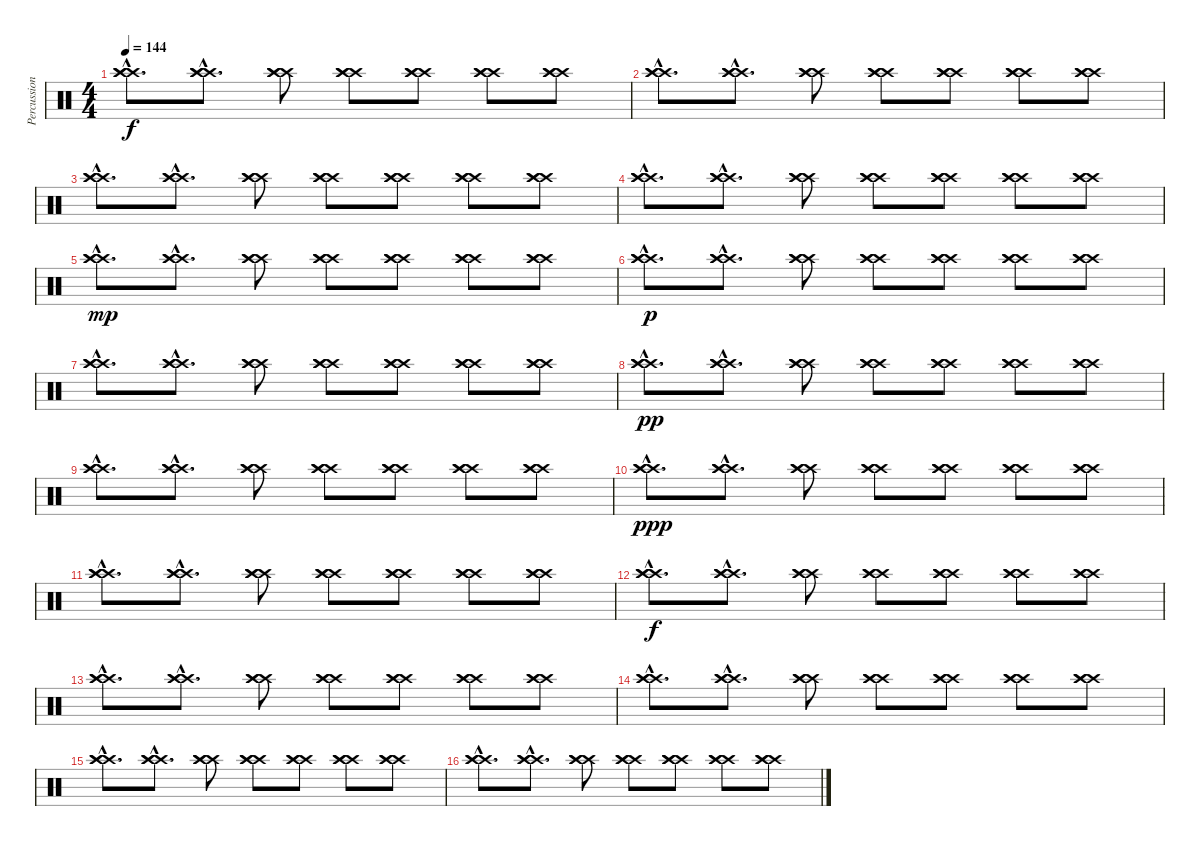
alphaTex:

\track ("Percussion 2" "Percussion") {instrument percussion}
\staff {score}
\articulation defaults
\ts (4 4)
\tempo 144
\clef neutral
\ks c
("Crash high (hit)"{hac} "Crash high (hit)"{hac} "Crash high (hit)"{hac}).8{d dy f} ("Crash high (hit)"{hac} "Crash high (hit)" "Crash high (hit)").8{d} ("Crash high (hit)" "Crash high (hit)" "Crash high (hit)").8 ("Crash high (hit)" "Crash high (hit)" "Crash high (hit)").8 ("Crash high (hit)" "Crash high (hit)" "Crash high (hit)").8 ("Crash high (hit)" "Crash high (hit)" "Crash high (hit)").8 ("Crash high (hit)" "Crash high (hit)" "Crash high (hit)").8 |
("Crash high (hit)"{hac} "Crash high (hit)"{hac} "Crash high (hit)"{hac}).8{d} ("Crash high (hit)"{hac} "Crash high (hit)" "Crash high (hit)").8{d} ("Crash high (hit)" "Crash high (hit)" "Crash high (hit)").8 ("Crash high (hit)" "Crash high (hit)" "Crash high (hit)").8 ("Crash high (hit)" "Crash high (hit)" "Crash high (hit)").8 ("Crash high (hit)" "Crash high (hit)" "Crash high (hit)").8 ("Crash high (hit)" "Crash high (hit)" "Crash high (hit)").8 |
("Crash high (hit)"{hac} "Crash high (hit)"{hac} "Crash high (hit)"{hac}).8{d} ("Crash high (hit)"{hac} "Crash high (hit)" "Crash high (hit)").8{d} ("Crash high (hit)" "Crash high (hit)" "Crash high (hit)").8 ("Crash high (hit)" "Crash high (hit)" "Crash high (hit)").8 ("Crash high (hit)" "Crash high (hit)" "Crash high (hit)").8 ("Crash high (hit)" "Crash high (hit)" "Crash high (hit)").8 ("Crash high (hit)" "Crash high (hit)" "Crash high (hit)").8 |
("Crash high (hit)"{hac} "Crash high (hit)"{hac} "Crash high (hit)"{hac}).8{d} ("Crash high (hit)"{hac} "Crash high (hit)" "Crash high (hit)").8{d} ("Crash high (hit)" "Crash high (hit)" "Crash high (hit)").8 ("Crash high (hit)" "Crash high (hit)" "Crash high (hit)").8 ("Crash high (hit)" "Crash high (hit)" "Crash high (hit)").8 ("Crash high (hit)" "Crash high (hit)" "Crash high (hit)").8 ("Crash high (hit)" "Crash high (hit)" "Crash high (hit)").8 |
("Crash high (hit)"{hac} "Crash high (hit)"{hac} "Crash high (hit)"{hac}).8{d dy mp} ("Crash high (hit)"{hac} "Crash high (hit)" "Crash high (hit)").8{d} ("Crash high (hit)" "Crash high (hit)" "Crash high (hit)").8 ("Crash high (hit)" "Crash high (hit)" "Crash high (hit)").8 ("Crash high (hit)" "Crash high (hit)" "Crash high (hit)").8 ("Crash high (hit)" "Crash high (hit)" "Crash high (hit)").8 ("Crash high (hit)" "Crash high (hit)" "Crash high (hit)").8 |
("Crash high (hit)"{hac} "Crash high (hit)"{hac} "Crash high (hit)"{hac}).8{d dy p} ("Crash high (hit)"{hac} "Crash high (hit)" "Crash high (hit)").8{d} ("Crash high (hit)" "Crash high (hit)" "Crash high (hit)").8 ("Crash high (hit)" "Crash high (hit)" "Crash high (hit)").8 ("Crash high (hit)" "Crash high (hit)" "Crash high (hit)").8 ("Crash high (hit)" "Crash high (hit)" "Crash high (hit)").8 ("Crash high (hit)" "Crash high (hit)" "Crash high (hit)").8 |
("Crash high (hit)"{hac} "Crash high (hit)"{hac} "Crash high (hit)"{hac}).8{d} ("Crash high (hit)"{hac} "Crash high (hit)" "Crash high (hit)").8{d} ("Crash high (hit)" "Crash high (hit)" "Crash high (hit)").8 ("Crash high (hit)" "Crash high (hit)" "Crash high (hit)").8 ("Crash high (hit)" "Crash high (hit)" "Crash high (hit)").8 ("Crash high (hit)" "Crash high (hit)" "Crash high (hit)").8 ("Crash high (hit)" "Crash high (hit)" "Crash high (hit)").8 |
("Crash high (hit)"{hac} "Crash high (hit)"{hac} "Crash high (hit)"{hac}).8{d dy pp} ("Crash high (hit)"{hac} "Crash high (hit)" "Crash high (hit)").8{d} ("Crash high (hit)" "Crash high (hit)" "Crash high (hit)").8 ("Crash high (hit)" "Crash high (hit)" "Crash high (hit)").8 ("Crash high (hit)" "Crash high (hit)" "Crash high (hit)").8 ("Crash high (hit)" "Crash high (hit)" "Crash high (hit)").8 ("Crash high (hit)" "Crash high (hit)" "Crash high (hit)").8 |
("Crash high (hit)"{hac} "Crash high (hit)"{hac} "Crash high (hit)"{hac}).8{d} ("Crash high (hit)"{hac} "Crash high (hit)" "Crash high (hit)").8{d} ("Crash high (hit)" "Crash high (hit)" "Crash high (hit)").8 ("Crash high (hit)" "Crash high (hit)" "Crash high (hit)").8 ("Crash high (hit)" "Crash high (hit)" "Crash high (hit)").8 ("Crash high (hit)" "Crash high (hit)" "Crash high (hit)").8 ("Crash high (hit)" "Crash high (hit)" "Crash high (hit)").8 |
("Crash high (hit)"{hac} "Crash high (hit)"{hac} "Crash high (hit)"{hac}).8{d dy ppp} ("Crash high (hit)"{hac} "Crash high (hit)" "Crash high (hit)").8{d} ("Crash high (hit)" "Crash high (hit)" "Crash high (hit)").8 ("Crash high (hit)" "Crash high (hit)" "Crash high (hit)").8 ("Crash high (hit)" "Crash high (hit)" "Crash high (hit)").8 ("Crash high (hit)" "Crash high (hit)" "Crash high (hit)").8 ("Crash high (hit)" "Crash high (hit)" "Crash high (hit)").8 |
("Crash high (hit)"{hac} "Crash high (hit)"{hac} "Crash high (hit)"{hac}).8{d} ("Crash high (hit)"{hac} "Crash high (hit)" "Crash high (hit)").8{d} ("Crash high (hit)" "Crash high (hit)" "Crash high (hit)").8 ("Crash high (hit)" "Crash high (hit)" "Crash high (hit)").8 ("Crash high (hit)" "Crash high (hit)" "Crash high (hit)").8 ("Crash high (hit)" "Crash high (hit)" "Crash high (hit)").8 ("Crash high (hit)" "Crash high (hit)" "Crash high (hit)").8 |
("Crash high (hit)"{hac} "Crash high (hit)"{hac} "Crash high (hit)"{hac}).8{d dy f} ("Crash high (hit)"{hac} "Crash high (hit)" "Crash high (hit)").8{d} ("Crash high (hit)" "Crash high (hit)" "Crash high (hit)").8 ("Crash high (hit)" "Crash high (hit)" "Crash high (hit)").8 ("Crash high (hit)" "Crash high (hit)" "Crash high (hit)").8 ("Crash high (hit)" "Crash high (hit)" "Crash high (hit)").8 ("Crash high (hit)" "Crash high (hit)" "Crash high (hit)").8 |
("Crash high (hit)"{hac} "Crash high (hit)"{hac} "Crash high (hit)"{hac}).8{d} ("Crash high (hit)"{hac} "Crash high (hit)" "Crash high (hit)").8{d} ("Crash high (hit)" "Crash high (hit)" "Crash high (hit)").8 ("Crash high (hit)" "Crash high (hit)" "Crash high (hit)").8 ("Crash high (hit)" "Crash high (hit)" "Crash high (hit)").8 ("Crash high (hit)" "Crash high (hit)" "Crash high (hit)").8 ("Crash high (hit)" "Crash high (hit)" "Crash high (hit)").8 |
("Crash high (hit)"{hac} "Crash high (hit)"{hac} "Crash high (hit)"{hac}).8{d} ("Crash high (hit)"{hac} "Crash high (hit)" "Crash high (hit)").8{d} ("Crash high (hit)" "Crash high (hit)" "Crash high (hit)").8 ("Crash high (hit)" "Crash high (hit)" "Crash high (hit)").8 ("Crash high (hit)" "Crash high (hit)" "Crash high (hit)").8 ("Crash high (hit)" "Crash high (hit)" "Crash high (hit)").8 ("Crash high (hit)" "Crash high (hit)" "Crash high (hit)").8 |
("Crash high (hit)"{hac} "Crash high (hit)"{hac} "Crash high (hit)"{hac}).8{d} ("Crash high (hit)"{hac} "Crash high (hit)" "Crash high (hit)").8{d} ("Crash high (hit)" "Crash high (hit)" "Crash high (hit)").8 ("Crash high (hit)" "Crash high (hit)" "Crash high (hit)").8 ("Crash high (hit)" "Crash high (hit)" "Crash high (hit)").8 ("Crash high (hit)" "Crash high (hit)" "Crash high (hit)").8 ("Crash high (hit)" "Crash high (hit)" "Crash high (hit)").8 |
("Crash high (hit)"{hac} "Crash high (hit)"{hac} "Crash high (hit)"{hac}).8{d} ("Crash high (hit)"{hac} "Crash high (hit)" "Crash high (hit)").8{d} ("Crash high (hit)" "Crash high (hit)" "Crash high (hit)").8 ("Crash high (hit)" "Crash high (hit)" "Crash high (hit)").8 ("Crash high (hit)" "Crash high (hit)" "Crash high (hit)").8 ("Crash high (hit)" "Crash high (hit)" "Crash high (hit)").8 ("Crash high (hit)" "Crash high (hit)" "Crash high (hit)").8
